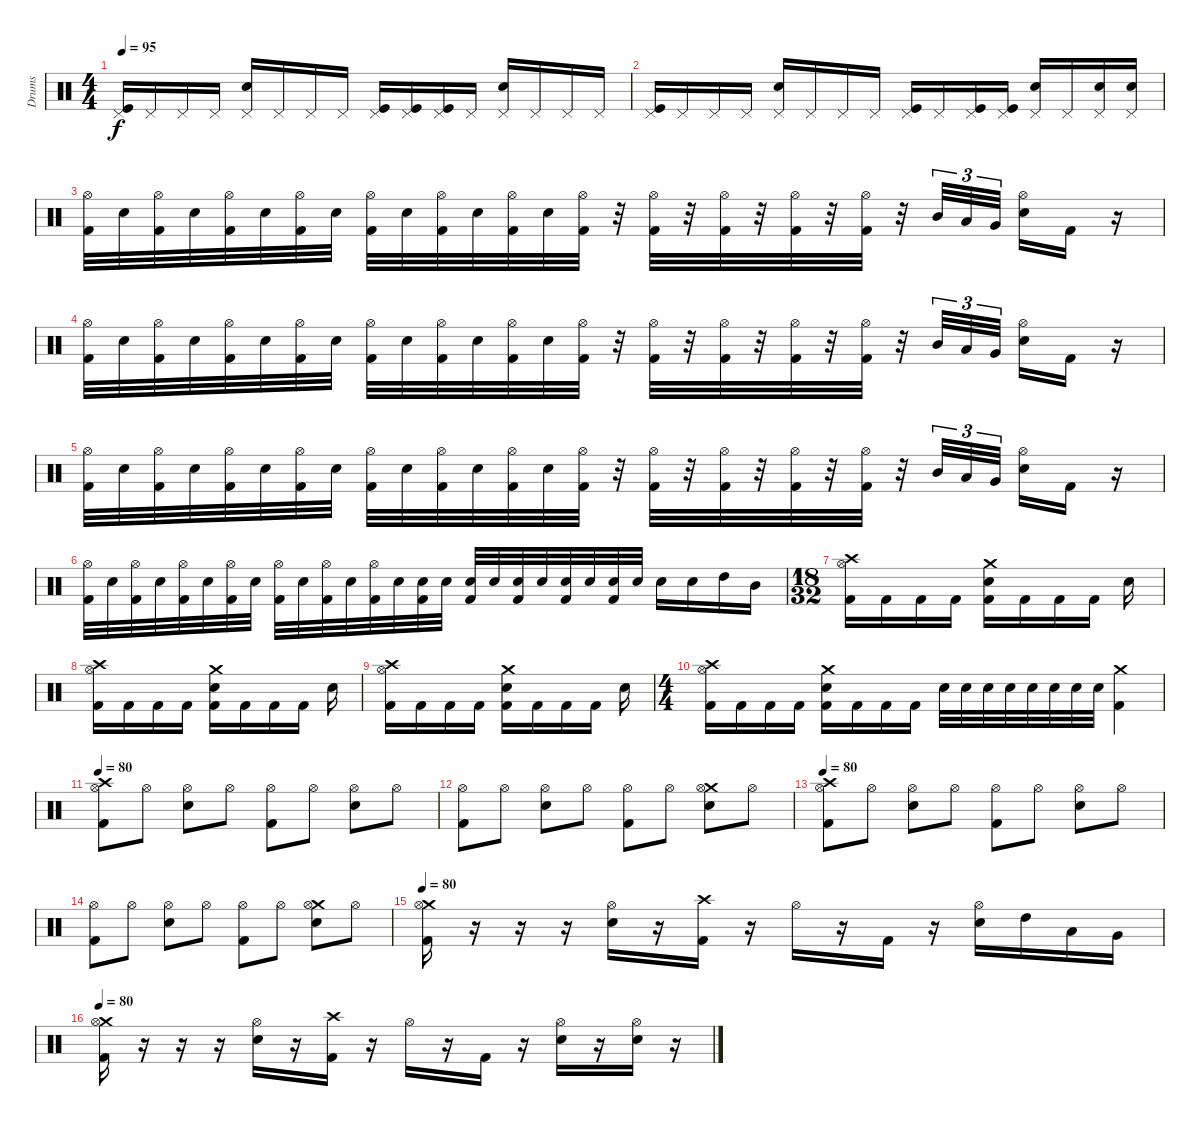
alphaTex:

\track ("Drums" "Drums") {instrument percussion}
\staff {score}
\articulation defaults
\ts (4 4)
\tempo 95
\clef neutral
\ks c
("Pedal Hi-Hat (hit)" "Kick (hit)").16{dy f} "Pedal Hi-Hat (hit)".16 "Pedal Hi-Hat (hit)".16 "Pedal Hi-Hat (hit)".16 ("Pedal Hi-Hat (hit)" "Electric Snare (hit)").16 "Pedal Hi-Hat (hit)".16 "Pedal Hi-Hat (hit)".16 "Pedal Hi-Hat (hit)".16 ("Pedal Hi-Hat (hit)" "Kick (hit)").16 ("Pedal Hi-Hat (hit)" "Kick (hit)").16 ("Pedal Hi-Hat (hit)" "Kick (hit)").16 "Pedal Hi-Hat (hit)".16 ("Pedal Hi-Hat (hit)" "Electric Snare (hit)").16 "Pedal Hi-Hat (hit)".16 "Pedal Hi-Hat (hit)".16 "Pedal Hi-Hat (hit)".16 |
("Pedal Hi-Hat (hit)" "Kick (hit)").16 "Pedal Hi-Hat (hit)".16 "Pedal Hi-Hat (hit)".16 "Pedal Hi-Hat (hit)".16 ("Pedal Hi-Hat (hit)" "Electric Snare (hit)").16 "Pedal Hi-Hat (hit)".16 "Pedal Hi-Hat (hit)".16 "Pedal Hi-Hat (hit)".16 ("Pedal Hi-Hat (hit)" "Kick (hit)").16 "Pedal Hi-Hat (hit)".16 ("Pedal Hi-Hat (hit)" "Kick (hit)").16 ("Pedal Hi-Hat (hit)" "Kick (hit)").16 ("Pedal Hi-Hat (hit)" "Electric Snare (hit)").16 "Pedal Hi-Hat (hit)".16 ("Pedal Hi-Hat (hit)" "Electric Snare (hit)").16 ("Pedal Hi-Hat (hit)" "Electric Snare (hit)").16 |
("Hi-Hat (open)" "Kick (hit) 2").32 "Electric Snare (hit)".32 ("Hi-Hat (open)" "Kick (hit) 2").32 "Electric Snare (hit)".32 ("Hi-Hat (open)" "Kick (hit) 2").32 "Electric Snare (hit)".32 ("Hi-Hat (open)" "Kick (hit) 2").32 "Electric Snare (hit)".32 ("Hi-Hat (open)" "Kick (hit) 2").32 "Electric Snare (hit)".32 ("Hi-Hat (open)" "Kick (hit) 2").32 "Electric Snare (hit)".32 ("Hi-Hat (open)" "Kick (hit) 2").32 "Electric Snare (hit)".32 ("Hi-Hat (open)" "Kick (hit) 2").32 r.32 ("Hi-Hat (open)" "Kick (hit) 2").32 r.32 ("Hi-Hat (open)" "Kick (hit) 2").32 r.32 ("Hi-Hat (open)" "Kick (hit) 2").32 r.32 ("Hi-Hat (open)" "Kick (hit) 2").32 r.32 "Mid Tom (hit)".32{tu (3 2)} "Low Tom (hit)".32{tu (3 2)} "Very Low Tom (hit)".32{tu (3 2)} ("Hi-Hat (open)" "Electric Snare (hit)").16 "Kick (hit) 2".16 r.16 |
("Hi-Hat (open)" "Kick (hit) 2").32 "Electric Snare (hit)".32 ("Hi-Hat (open)" "Kick (hit) 2").32 "Electric Snare (hit)".32 ("Hi-Hat (open)" "Kick (hit) 2").32 "Electric Snare (hit)".32 ("Hi-Hat (open)" "Kick (hit) 2").32 "Electric Snare (hit)".32 ("Hi-Hat (open)" "Kick (hit) 2").32 "Electric Snare (hit)".32 ("Hi-Hat (open)" "Kick (hit) 2").32 "Electric Snare (hit)".32 ("Hi-Hat (open)" "Kick (hit) 2").32 "Electric Snare (hit)".32 ("Hi-Hat (open)" "Kick (hit) 2").32 r.32 ("Hi-Hat (open)" "Kick (hit) 2").32 r.32 ("Hi-Hat (open)" "Kick (hit) 2").32 r.32 ("Hi-Hat (open)" "Kick (hit) 2").32 r.32 ("Hi-Hat (open)" "Kick (hit) 2").32 r.32 "Mid Tom (hit)".32{tu (3 2)} "Low Tom (hit)".32{tu (3 2)} "Very Low Tom (hit)".32{tu (3 2)} ("Hi-Hat (open)" "Electric Snare (hit)").16 "Kick (hit) 2".16 r.16 |
("Hi-Hat (open)" "Kick (hit) 2").32 "Electric Snare (hit)".32 ("Hi-Hat (open)" "Kick (hit) 2").32 "Electric Snare (hit)".32 ("Hi-Hat (open)" "Kick (hit) 2").32 "Electric Snare (hit)".32 ("Hi-Hat (open)" "Kick (hit) 2").32 "Electric Snare (hit)".32 ("Hi-Hat (open)" "Kick (hit) 2").32 "Electric Snare (hit)".32 ("Hi-Hat (open)" "Kick (hit) 2").32 "Electric Snare (hit)".32 ("Hi-Hat (open)" "Kick (hit) 2").32 "Electric Snare (hit)".32 ("Hi-Hat (open)" "Kick (hit) 2").32 r.32 ("Hi-Hat (open)" "Kick (hit) 2").32 r.32 ("Hi-Hat (open)" "Kick (hit) 2").32 r.32 ("Hi-Hat (open)" "Kick (hit) 2").32 r.32 ("Hi-Hat (open)" "Kick (hit) 2").32 r.32 "Mid Tom (hit)".32{tu (3 2)} "Low Tom (hit)".32{tu (3 2)} "Very Low Tom (hit)".32{tu (3 2)} ("Hi-Hat (open)" "Electric Snare (hit)").16 "Kick (hit) 2".16 r.16 |
("Hi-Hat (open)" "Kick (hit) 2").32 "Electric Snare (hit)".32 ("Hi-Hat (open)" "Kick (hit) 2").32 "Electric Snare (hit)".32 ("Hi-Hat (open)" "Kick (hit) 2").32 "Electric Snare (hit)".32 ("Hi-Hat (open)" "Kick (hit) 2").32 "Electric Snare (hit)".32 ("Hi-Hat (open)" "Kick (hit) 2").32 "Electric Snare (hit)".32 ("Hi-Hat (open)" "Kick (hit) 2").32 "Electric Snare (hit)".32 ("Hi-Hat (open)" "Kick (hit) 2").32 "Electric Snare (hit)".32 ("Electric Snare (hit)" "Kick (hit) 2").32 "Electric Snare (hit)".32 ("Electric Snare (hit)" "Kick (hit) 2").32 "Electric Snare (hit)".32 ("Electric Snare (hit)" "Kick (hit) 2").32 "Electric Snare (hit)".32 ("Electric Snare (hit)" "Kick (hit) 2").32 "Electric Snare (hit)".32 ("Electric Snare (hit)" "Kick (hit) 2").32 "Electric Snare (hit)".32 "Electric Snare (hit)".16 "Electric Snare (hit)".16 "High Tom (hit)".16 "Mid Tom (hit)".16 |
\ts (18 32)
("Crash high (hit)" "Hi-Hat (open)" "Kick (hit) 2").16 "Kick (hit) 2".16 "Kick (hit) 2".16 "Kick (hit) 2".16 ("Crash medium (hit)" "Electric Snare (hit)" "Kick (hit) 2").16 "Kick (hit) 2".16 "Kick (hit) 2".16 "Kick (hit) 2".16 "Electric Snare (hit)".16 |
("Crash high (hit)" "Hi-Hat (open)" "Kick (hit) 2").16 "Kick (hit) 2".16 "Kick (hit) 2".16 "Kick (hit) 2".16 ("Crash medium (hit)" "Electric Snare (hit)" "Kick (hit) 2").16 "Kick (hit) 2".16 "Kick (hit) 2".16 "Kick (hit) 2".16 "Electric Snare (hit)".16 |
("Crash high (hit)" "Hi-Hat (open)" "Kick (hit) 2").16 "Kick (hit) 2".16 "Kick (hit) 2".16 "Kick (hit) 2".16 ("Crash medium (hit)" "Electric Snare (hit)" "Kick (hit) 2").16 "Kick (hit) 2".16 "Kick (hit) 2".16 "Kick (hit) 2".16 "Electric Snare (hit)".16 |
\ts (4 4)
("Crash high (hit)" "Hi-Hat (open)" "Kick (hit) 2").16 "Kick (hit) 2".16 "Kick (hit) 2".16 "Kick (hit) 2".16 ("Crash medium (hit)" "Electric Snare (hit)" "Kick (hit) 2").16 "Kick (hit) 2".16 "Kick (hit) 2".16 "Kick (hit) 2".16 "Electric Snare (hit)".32 "Electric Snare (hit)".32 "Electric Snare (hit)".32 "Electric Snare (hit)".32 "Electric Snare (hit)".32 "Electric Snare (hit)".32 "Electric Snare (hit)".32 "Electric Snare (hit)".32 ("Crash medium (hit)" "Kick (hit) 2").4 |
\tempo 80
("Crash high (hit)" "Hi-Hat (open)" "Kick (hit) 2").8 "Hi-Hat (open)".8 ("Hi-Hat (open)" "Electric Snare (hit)").8 "Hi-Hat (open)".8 ("Hi-Hat (open)" "Kick (hit) 2").8 "Hi-Hat (open)".8 ("Hi-Hat (open)" "Electric Snare (hit)").8 "Hi-Hat (open)".8 |
("Hi-Hat (open)" "Kick (hit) 2").8 "Hi-Hat (open)".8 ("Hi-Hat (open)" "Electric Snare (hit)").8 "Hi-Hat (open)".8 ("Hi-Hat (open)" "Kick (hit) 2").8 "Hi-Hat (open)".8 ("Crash medium (hit)" "Hi-Hat (open)" "Electric Snare (hit)").8 "Hi-Hat (open)".8 |
\tempo 80
("Crash high (hit)" "Hi-Hat (open)" "Kick (hit) 2").8 "Hi-Hat (open)".8 ("Hi-Hat (open)" "Electric Snare (hit)").8 "Hi-Hat (open)".8 ("Hi-Hat (open)" "Kick (hit) 2").8 "Hi-Hat (open)".8 ("Hi-Hat (open)" "Electric Snare (hit)").8 "Hi-Hat (open)".8 |
("Hi-Hat (open)" "Kick (hit) 2").8 "Hi-Hat (open)".8 ("Hi-Hat (open)" "Electric Snare (hit)").8 "Hi-Hat (open)".8 ("Hi-Hat (open)" "Kick (hit) 2").8 "Hi-Hat (open)".8 ("Crash medium (hit)" "Hi-Hat (open)" "Electric Snare (hit)").8 "Hi-Hat (open)".8 |
\tempo 80
("Crash medium (hit)" "Hi-Hat (open)" "Kick (hit) 2").16 r.16 r.16 r.16 ("Hi-Hat (open)" "Electric Snare (hit)").16 r.16 ("Crash high (hit)" "Kick (hit) 2").16 r.16 "Hi-Hat (open)".16 r.16 "Kick (hit) 2".16 r.16 ("Hi-Hat (open)" "Electric Snare (hit)").16 "High Tom (hit)".16 "Low Tom (hit)".16 "Very Low Tom (hit)".16 |
\tempo 80
("Crash medium (hit)" "Hi-Hat (open)" "Kick (hit) 2").16 r.16 r.16 r.16 ("Hi-Hat (open)" "Electric Snare (hit)").16 r.16 ("Crash high (hit)" "Kick (hit) 2").16 r.16 "Hi-Hat (open)".16 r.16 "Kick (hit) 2".16 r.16 ("Hi-Hat (open)" "Electric Snare (hit)").16 r.16 ("Hi-Hat (open)" "Electric Snare (hit)").16 r.16
